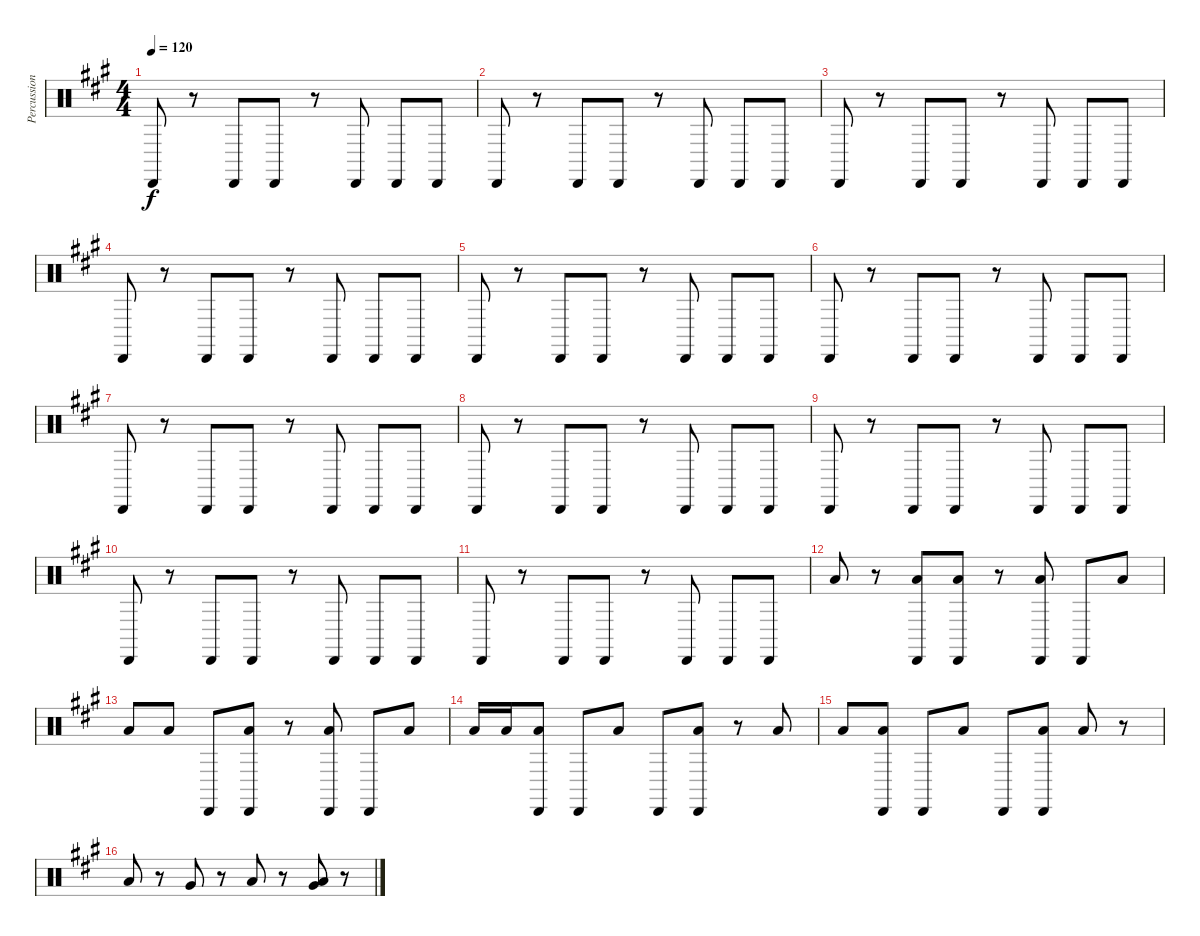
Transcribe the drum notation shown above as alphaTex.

\track ("Percussion" "Percussion") {instrument percussion}
\staff {score}
\articulation defaults
\ts (4 4)
\tempo 120
\clef neutral
\ks f#minor "Cabasa (hit)".8{dy f}
r.8 "Cabasa (hit)".8 "Cabasa (hit)".8 r.8 "Cabasa (hit)".8 "Cabasa (hit)".8 "Cabasa (hit)".8 |
"Cabasa (hit)".8 r.8 "Cabasa (hit)".8 "Cabasa (hit)".8 r.8 "Cabasa (hit)".8 "Cabasa (hit)".8 "Cabasa (hit)".8 |
"Cabasa (hit)".8 r.8 "Cabasa (hit)".8 "Cabasa (hit)".8 r.8 "Cabasa (hit)".8 "Cabasa (hit)".8 "Cabasa (hit)".8 |
"Cabasa (hit)".8 r.8 "Cabasa (hit)".8 "Cabasa (hit)".8 r.8 "Cabasa (hit)".8 "Cabasa (hit)".8 "Cabasa (hit)".8 |
"Cabasa (hit)".8 r.8 "Cabasa (hit)".8 "Cabasa (hit)".8 r.8 "Cabasa (hit)".8 "Cabasa (hit)".8 "Cabasa (hit)".8 |
"Cabasa (hit)".8 r.8 "Cabasa (hit)".8 "Cabasa (hit)".8 r.8 "Cabasa (hit)".8 "Cabasa (hit)".8 "Cabasa (hit)".8 |
"Cabasa (hit)".8 r.8 "Cabasa (hit)".8 "Cabasa (hit)".8 r.8 "Cabasa (hit)".8 "Cabasa (hit)".8 "Cabasa (hit)".8 |
"Cabasa (hit)".8 r.8 "Cabasa (hit)".8 "Cabasa (hit)".8 r.8 "Cabasa (hit)".8 "Cabasa (hit)".8 "Cabasa (hit)".8 |
"Cabasa (hit)".8 r.8 "Cabasa (hit)".8 "Cabasa (hit)".8 r.8 "Cabasa (hit)".8 "Cabasa (hit)".8 "Cabasa (hit)".8 |
"Cabasa (hit)".8 r.8 "Cabasa (hit)".8 "Cabasa (hit)".8 r.8 "Cabasa (hit)".8 "Cabasa (hit)".8 "Cabasa (hit)".8 |
"Cabasa (hit)".8 r.8 "Cabasa (hit)".8 "Cabasa (hit)".8 r.8 "Cabasa (hit)".8 "Cabasa (hit)".8 "Cabasa (hit)".8 |
"Low Floor Tom (hit)".8 r.8 ("Cabasa (hit)" "Low Floor Tom (hit)").8 ("Cabasa (hit)" "Low Floor Tom (hit)").8 r.8 ("Cabasa (hit)" "Low Floor Tom (hit)").8 "Cabasa (hit)".8 "Low Floor Tom (hit)".8 |
"Low Floor Tom (hit)".8 "Low Floor Tom (hit)".8 "Cabasa (hit)".8 ("Cabasa (hit)" "Low Floor Tom (hit)").8 r.8 ("Cabasa (hit)" "Low Floor Tom (hit)").8 "Cabasa (hit)".8 "Low Floor Tom (hit)".8 |
"Low Floor Tom (hit)".16 "Low Floor Tom (hit)".16 ("Cabasa (hit)" "Low Floor Tom (hit)").8 "Cabasa (hit)".8 "Low Floor Tom (hit)".8 "Cabasa (hit)".8 ("Cabasa (hit)" "Low Floor Tom (hit)").8 r.8 "Low Floor Tom (hit)".8 |
"Low Floor Tom (hit)".8 ("Cabasa (hit)" "Low Floor Tom (hit)").8 "Cabasa (hit)".8 "Low Floor Tom (hit)".8 "Cabasa (hit)".8 ("Cabasa (hit)" "Low Floor Tom (hit)").8 "Low Floor Tom (hit)".8 r.8 |
"Low Floor Tom (hit)".8 r.8 "Very Low Tom (hit)".8 r.8 "Low Tom (hit)".8 r.8 ("Low Tom (hit)" "Very Low Tom (hit)").8 r.8
